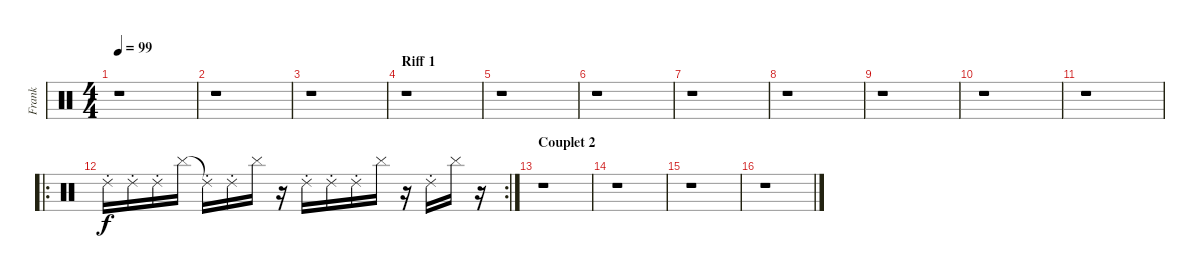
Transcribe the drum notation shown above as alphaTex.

\track ("Frank" "Frank") {instrument percussion}
\staff {score}
\articulation defaults
\ts (4 4)
\tempo 99
\clef neutral
\ks c
r.1{dy f} |
r.1 |
r.1 |
\section ("" "Riff 1")
r.1 |
r.1 |
r.1 |
r.1 |
r.1 |
r.1 |
r.1 |
r.1 |
\ro
\rc 2 "Ride (choke) 2".16{volume 16} "Ride (choke) 2".16 "Ride (choke) 2".16 "Cymbal (hit)".16 "Ride (choke) 2"{t}.16 "Ride (choke) 2".16 "Cymbal (hit)".16
r.16 "Ride (choke) 2".16 "Ride (choke) 2".16 "Ride (choke) 2".16 "Cymbal (hit)".16 r.16 "Ride (choke) 2".16 "Cymbal (hit)".16 r.16 |
\section ("" "Couplet 2")
r.1 |
r.1 |
r.1 |
r.1
